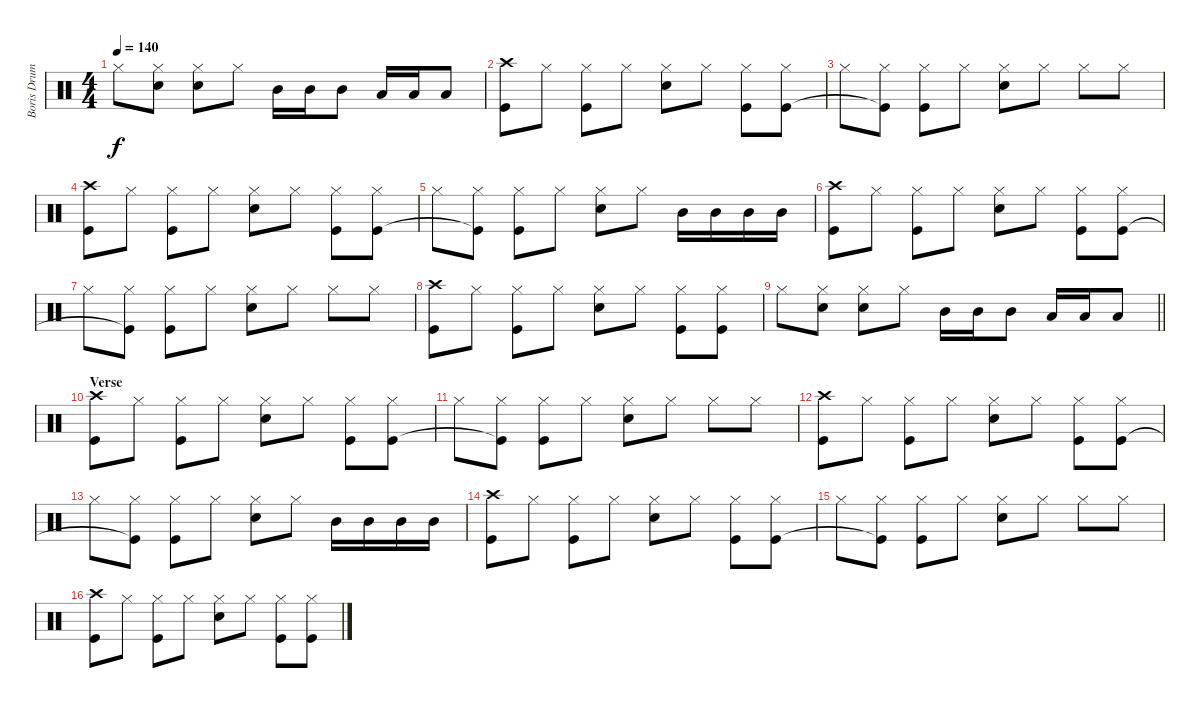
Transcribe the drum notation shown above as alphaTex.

\track ("Boris Drums" "Boris Drum") {instrument percussion}
\staff {score}
\articulation defaults
\ts (4 4)
\tempo 140
\clef neutral
\ks c "Hi-Hat (closed)".8{dy f}
("Hi-Hat (closed)" "Electric Snare (hit)").8 ("Hi-Hat (closed)" "Electric Snare (hit)").8 "Hi-Hat (closed)".8 "Mid Tom (hit)".16 "Mid Tom (hit)".16 "Mid Tom (hit)".8 "Low Tom (hit)".16 "Low Tom (hit)".16 "Low Tom (hit)".8 |
("Crash high (hit)" "Kick (hit)").8 "Hi-Hat (closed)".8 ("Hi-Hat (closed)" "Kick (hit)").8 "Hi-Hat (closed)".8 ("Hi-Hat (closed)" "Electric Snare (hit)").8 "Hi-Hat (closed)".8 ("Hi-Hat (closed)" "Kick (hit)").8 ("Hi-Hat (closed)" "Kick (hit)").8 |
"Hi-Hat (closed)".8 ("Hi-Hat (closed)" "Kick (hit)"{t}).8 ("Hi-Hat (closed)" "Kick (hit)").8 "Hi-Hat (closed)".8 ("Hi-Hat (closed)" "Electric Snare (hit)").8 "Hi-Hat (closed)".8 "Hi-Hat (closed)".8 "Hi-Hat (closed)".8 |
("Crash high (hit)" "Kick (hit)").8 "Hi-Hat (closed)".8 ("Hi-Hat (closed)" "Kick (hit)").8 "Hi-Hat (closed)".8 ("Hi-Hat (closed)" "Electric Snare (hit)").8 "Hi-Hat (closed)".8 ("Hi-Hat (closed)" "Kick (hit)").8 ("Hi-Hat (closed)" "Kick (hit)").8 |
"Hi-Hat (closed)".8 ("Hi-Hat (closed)" "Kick (hit)"{t}).8 ("Hi-Hat (closed)" "Kick (hit)").8 "Hi-Hat (closed)".8 ("Hi-Hat (closed)" "Electric Snare (hit)").8 "Hi-Hat (closed)".8 "Mid Tom (hit)".16 "Mid Tom (hit)".16 "Mid Tom (hit)".16 "Mid Tom (hit)".16 |
("Crash high (hit)" "Kick (hit)").8 "Hi-Hat (closed)".8 ("Hi-Hat (closed)" "Kick (hit)").8 "Hi-Hat (closed)".8 ("Hi-Hat (closed)" "Electric Snare (hit)").8 "Hi-Hat (closed)".8 ("Hi-Hat (closed)" "Kick (hit)").8 ("Hi-Hat (closed)" "Kick (hit)").8 |
"Hi-Hat (closed)".8 ("Hi-Hat (closed)" "Kick (hit)"{t}).8 ("Hi-Hat (closed)" "Kick (hit)").8 "Hi-Hat (closed)".8 ("Hi-Hat (closed)" "Electric Snare (hit)").8 "Hi-Hat (closed)".8 "Hi-Hat (closed)".8 "Hi-Hat (closed)".8 |
("Crash high (hit)" "Kick (hit)").8 "Hi-Hat (closed)".8 ("Hi-Hat (closed)" "Kick (hit)").8 "Hi-Hat (closed)".8 ("Hi-Hat (closed)" "Electric Snare (hit)").8 "Hi-Hat (closed)".8 ("Hi-Hat (closed)" "Kick (hit)").8 ("Hi-Hat (closed)" "Kick (hit)").8 |
\barLineRight lightlight "Hi-Hat (closed)".8
("Hi-Hat (closed)" "Electric Snare (hit)").8 ("Hi-Hat (closed)" "Electric Snare (hit)").8 "Hi-Hat (closed)".8 "Mid Tom (hit)".16 "Mid Tom (hit)".16 "Mid Tom (hit)".8 "Low Tom (hit)".16 "Low Tom (hit)".16 "Low Tom (hit)".8 |
\section ("" "Verse")
("Crash high (hit)" "Kick (hit)").8 "Hi-Hat (closed)".8 ("Hi-Hat (closed)" "Kick (hit)").8 "Hi-Hat (closed)".8 ("Hi-Hat (closed)" "Electric Snare (hit)").8 "Hi-Hat (closed)".8 ("Hi-Hat (closed)" "Kick (hit)").8 ("Hi-Hat (closed)" "Kick (hit)").8 |
"Hi-Hat (closed)".8 ("Hi-Hat (closed)" "Kick (hit)"{t}).8 ("Hi-Hat (closed)" "Kick (hit)").8 "Hi-Hat (closed)".8 ("Hi-Hat (closed)" "Electric Snare (hit)").8 "Hi-Hat (closed)".8 "Hi-Hat (closed)".8 "Hi-Hat (closed)".8 |
("Crash high (hit)" "Kick (hit)").8 "Hi-Hat (closed)".8 ("Hi-Hat (closed)" "Kick (hit)").8 "Hi-Hat (closed)".8 ("Hi-Hat (closed)" "Electric Snare (hit)").8 "Hi-Hat (closed)".8 ("Hi-Hat (closed)" "Kick (hit)").8 ("Hi-Hat (closed)" "Kick (hit)").8 |
"Hi-Hat (closed)".8 ("Hi-Hat (closed)" "Kick (hit)"{t}).8 ("Hi-Hat (closed)" "Kick (hit)").8 "Hi-Hat (closed)".8 ("Hi-Hat (closed)" "Electric Snare (hit)").8 "Hi-Hat (closed)".8 "Mid Tom (hit)".16 "Mid Tom (hit)".16 "Mid Tom (hit)".16 "Mid Tom (hit)".16 |
("Crash high (hit)" "Kick (hit)").8 "Hi-Hat (closed)".8 ("Hi-Hat (closed)" "Kick (hit)").8 "Hi-Hat (closed)".8 ("Hi-Hat (closed)" "Electric Snare (hit)").8 "Hi-Hat (closed)".8 ("Hi-Hat (closed)" "Kick (hit)").8 ("Hi-Hat (closed)" "Kick (hit)").8 |
"Hi-Hat (closed)".8 ("Hi-Hat (closed)" "Kick (hit)"{t}).8 ("Hi-Hat (closed)" "Kick (hit)").8 "Hi-Hat (closed)".8 ("Hi-Hat (closed)" "Electric Snare (hit)").8 "Hi-Hat (closed)".8 "Hi-Hat (closed)".8 "Hi-Hat (closed)".8 |
("Crash high (hit)" "Kick (hit)").8 "Hi-Hat (closed)".8 ("Hi-Hat (closed)" "Kick (hit)").8 "Hi-Hat (closed)".8 ("Hi-Hat (closed)" "Electric Snare (hit)").8 "Hi-Hat (closed)".8 ("Hi-Hat (closed)" "Kick (hit)").8 ("Hi-Hat (closed)" "Kick (hit)").8
